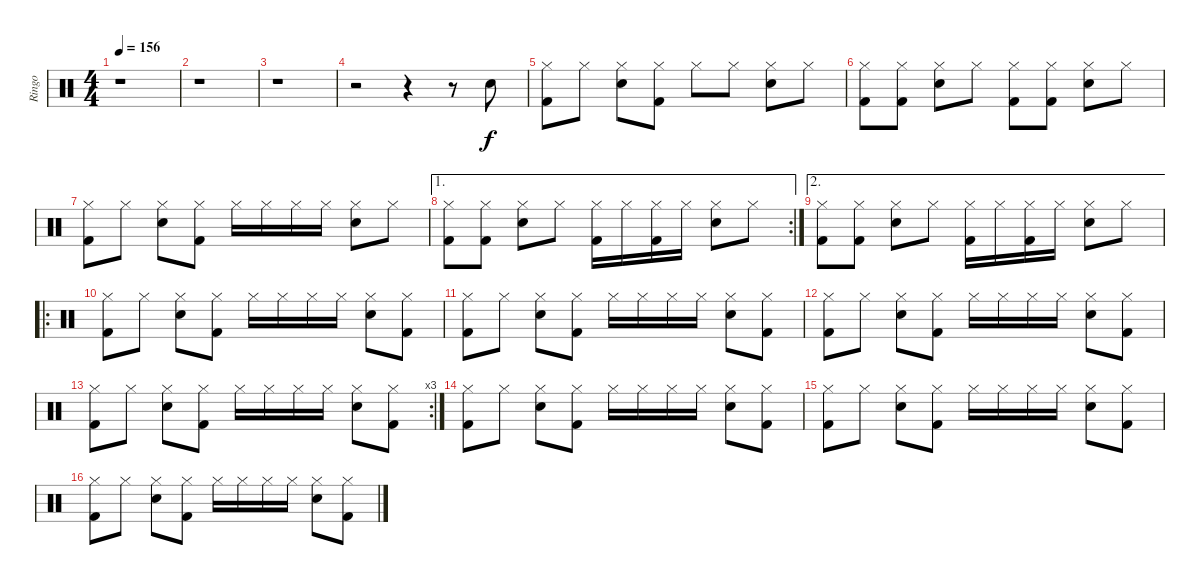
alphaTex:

\track ("Ringo" "Ringo") {instrument percussion}
\staff {score}
\articulation defaults
\ts (4 4)
\tempo 156
\clef neutral
\ks c
r.1{dy f} |
r.1 |
r.1 |
r.2 r.4 r.8 "Snare (hit) 2".8 |
("Hi-Hat (closed)" "Kick (hit) 2").8 "Hi-Hat (closed)".8 ("Hi-Hat (closed)" "Snare (hit) 2").8 ("Hi-Hat (closed)" "Kick (hit) 2").8 "Hi-Hat (closed)".8 "Hi-Hat (closed)".8 ("Hi-Hat (closed)" "Snare (hit) 2").8 "Hi-Hat (closed)".8 |
("Hi-Hat (closed)" "Kick (hit) 2").8 ("Hi-Hat (closed)" "Kick (hit) 2").8 ("Hi-Hat (closed)" "Snare (hit) 2").8 "Hi-Hat (closed)".8 ("Hi-Hat (closed)" "Kick (hit) 2").8 ("Hi-Hat (closed)" "Kick (hit) 2").8 ("Hi-Hat (closed)" "Snare (hit) 2").8 "Hi-Hat (closed)".8 |
("Hi-Hat (closed)" "Kick (hit) 2").8 "Hi-Hat (closed)".8 ("Hi-Hat (closed)" "Snare (hit) 2").8 ("Hi-Hat (closed)" "Kick (hit) 2").8 "Hi-Hat (closed)".16 "Hi-Hat (closed)".16 "Hi-Hat (closed)".16 "Hi-Hat (closed)".16 ("Hi-Hat (closed)" "Snare (hit) 2").8 "Hi-Hat (closed)".8 |
\ae 1
\rc 2
("Hi-Hat (closed)" "Kick (hit) 2").8 ("Hi-Hat (closed)" "Kick (hit) 2").8 ("Hi-Hat (closed)" "Snare (hit) 2").8 "Hi-Hat (closed)".8 ("Hi-Hat (closed)" "Kick (hit) 2").16 "Hi-Hat (closed)".16 ("Hi-Hat (closed)" "Kick (hit) 2").16 "Hi-Hat (closed)".16 ("Hi-Hat (closed)" "Snare (hit) 2").8 "Hi-Hat (closed)".8 |
\ae 2
("Hi-Hat (closed)" "Kick (hit) 2").8 ("Hi-Hat (closed)" "Kick (hit) 2").8 ("Hi-Hat (closed)" "Snare (hit) 2").8 "Hi-Hat (closed)".8 ("Hi-Hat (closed)" "Kick (hit) 2").16 "Hi-Hat (closed)".16 ("Hi-Hat (closed)" "Kick (hit) 2").16 "Hi-Hat (closed)".16 ("Hi-Hat (closed)" "Snare (hit) 2").8 "Hi-Hat (closed)".8 |
\ro
("Hi-Hat (closed)" "Kick (hit) 2").8 "Hi-Hat (closed)".8 ("Hi-Hat (closed)" "Snare (hit) 2").8 ("Hi-Hat (closed)" "Kick (hit) 2").8 "Hi-Hat (closed)".16 "Hi-Hat (closed)".16 "Hi-Hat (closed)".16 "Hi-Hat (closed)".16 ("Hi-Hat (closed)" "Snare (hit) 2").8 ("Hi-Hat (closed)" "Kick (hit) 2").8 |
("Hi-Hat (closed)" "Kick (hit) 2").8 "Hi-Hat (closed)".8 ("Hi-Hat (closed)" "Snare (hit) 2").8 ("Hi-Hat (closed)" "Kick (hit) 2").8 "Hi-Hat (closed)".16 "Hi-Hat (closed)".16 "Hi-Hat (closed)".16 "Hi-Hat (closed)".16 ("Hi-Hat (closed)" "Snare (hit) 2").8 ("Hi-Hat (closed)" "Kick (hit) 2").8 |
("Hi-Hat (closed)" "Kick (hit) 2").8 "Hi-Hat (closed)".8 ("Hi-Hat (closed)" "Snare (hit) 2").8 ("Hi-Hat (closed)" "Kick (hit) 2").8 "Hi-Hat (closed)".16 "Hi-Hat (closed)".16 "Hi-Hat (closed)".16 "Hi-Hat (closed)".16 ("Hi-Hat (closed)" "Snare (hit) 2").8 ("Hi-Hat (closed)" "Kick (hit) 2").8 |
\rc 3
("Hi-Hat (closed)" "Kick (hit) 2").8 "Hi-Hat (closed)".8 ("Hi-Hat (closed)" "Snare (hit) 2").8 ("Hi-Hat (closed)" "Kick (hit) 2").8 "Hi-Hat (closed)".16 "Hi-Hat (closed)".16 "Hi-Hat (closed)".16 "Hi-Hat (closed)".16 ("Hi-Hat (closed)" "Snare (hit) 2").8 ("Hi-Hat (closed)" "Kick (hit) 2").8 |
("Hi-Hat (closed)" "Kick (hit) 2").8 "Hi-Hat (closed)".8 ("Hi-Hat (closed)" "Snare (hit) 2").8 ("Hi-Hat (closed)" "Kick (hit) 2").8 "Hi-Hat (closed)".16 "Hi-Hat (closed)".16 "Hi-Hat (closed)".16 "Hi-Hat (closed)".16 ("Hi-Hat (closed)" "Snare (hit) 2").8 ("Hi-Hat (closed)" "Kick (hit) 2").8 |
("Hi-Hat (closed)" "Kick (hit) 2").8 "Hi-Hat (closed)".8 ("Hi-Hat (closed)" "Snare (hit) 2").8 ("Hi-Hat (closed)" "Kick (hit) 2").8 "Hi-Hat (closed)".16 "Hi-Hat (closed)".16 "Hi-Hat (closed)".16 "Hi-Hat (closed)".16 ("Hi-Hat (closed)" "Snare (hit) 2").8 ("Hi-Hat (closed)" "Kick (hit) 2").8 |
("Hi-Hat (closed)" "Kick (hit) 2").8 "Hi-Hat (closed)".8 ("Hi-Hat (closed)" "Snare (hit) 2").8 ("Hi-Hat (closed)" "Kick (hit) 2").8 "Hi-Hat (closed)".16 "Hi-Hat (closed)".16 "Hi-Hat (closed)".16 "Hi-Hat (closed)".16 ("Hi-Hat (closed)" "Snare (hit) 2").8 ("Hi-Hat (closed)" "Kick (hit) 2").8
